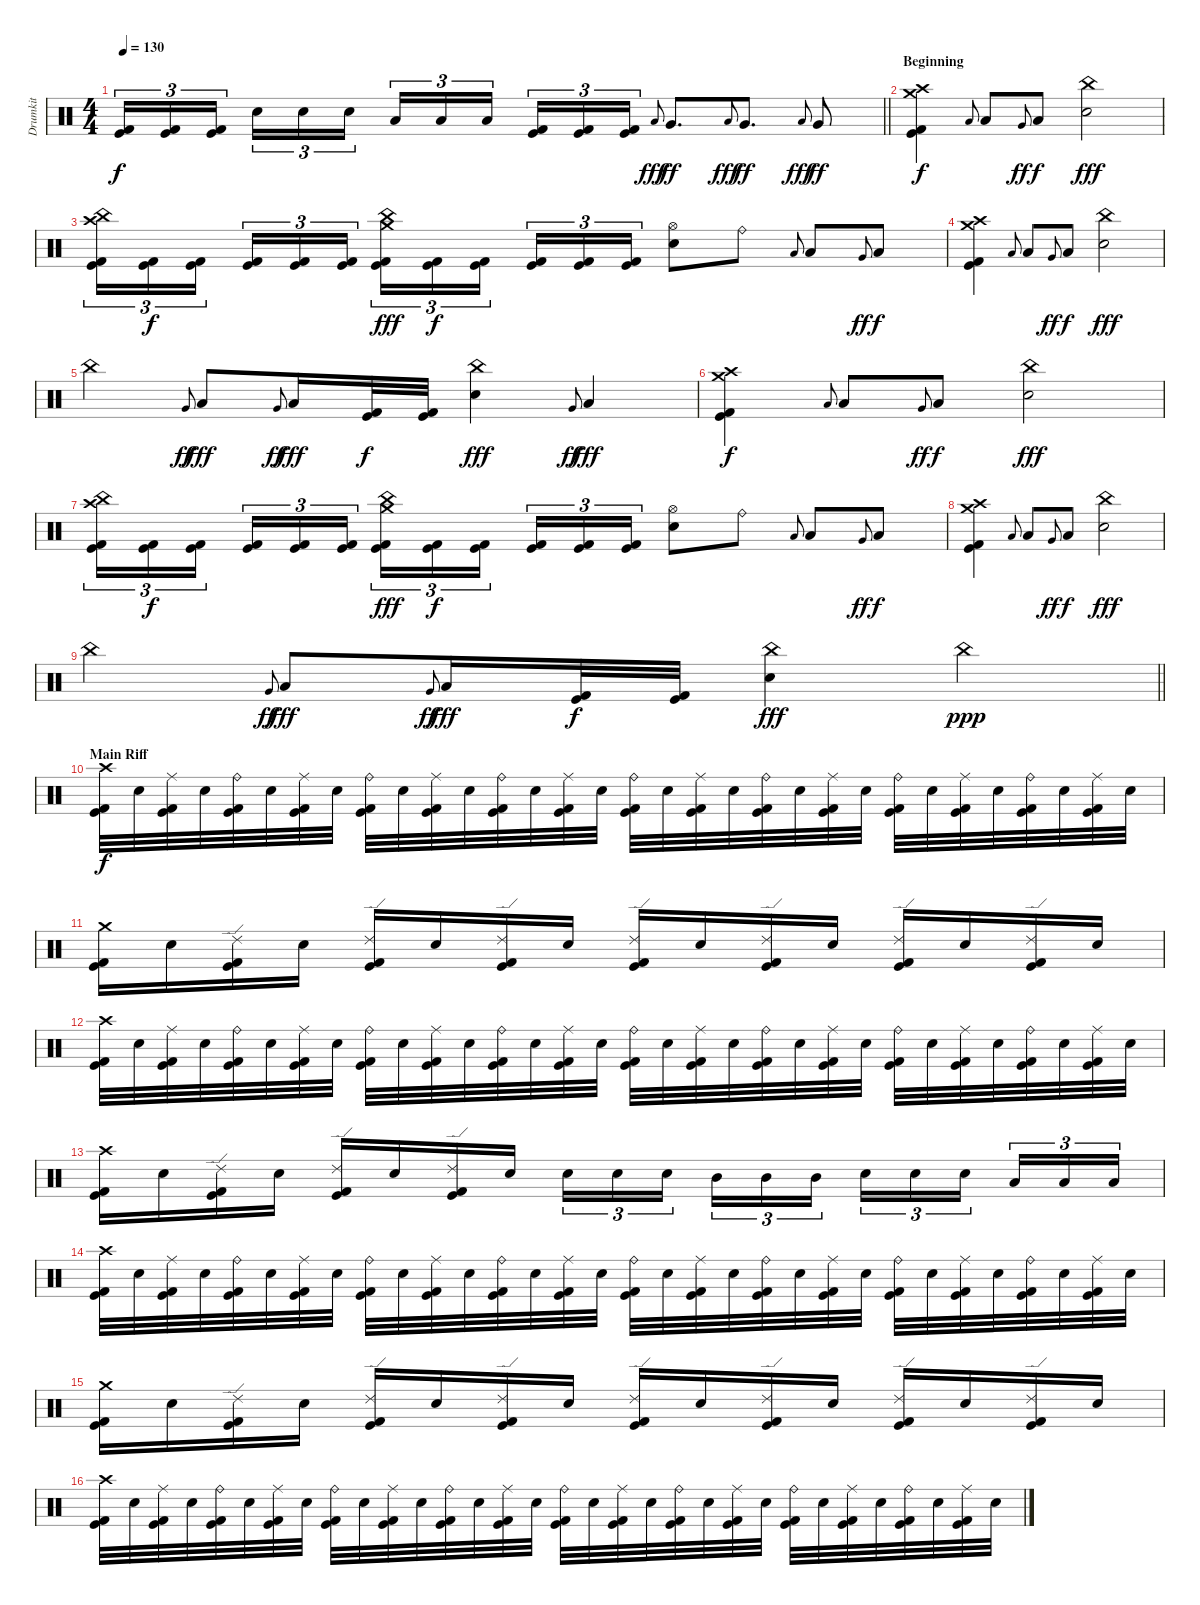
\track ("Drumkit" "Drumkit") {instrument percussion}
\staff {score}
\articulation defaults
\ts (4 4)
\tempo 130
\clef neutral
\barLineRight lightlight
\ks c
("Kick (hit)" "Kick (hit) 2").16{tu (3 2) dy f} ("Kick (hit)" "Kick (hit) 2").16{tu (3 2)} ("Kick (hit)" "Kick (hit) 2").16{tu (3 2) beam splitsecondary} "Electric Snare (hit)".16{tu (3 2)} "Electric Snare (hit)".16{tu (3 2)} "Electric Snare (hit)".16{tu (3 2)} "Low Tom (hit)".16{tu (3 2)} "Low Tom (hit)".16{tu (3 2)} "Low Tom (hit)".16{tu (3 2) beam splitsecondary} ("Kick (hit)" "Kick (hit) 2").16{tu (3 2)} ("Kick (hit)" "Kick (hit) 2").16{tu (3 2)} ("Kick (hit)" "Kick (hit) 2").16{tu (3 2)} "Low Floor Tom (hit)".8{gr onbeat dy fff} "Very Low Tom (hit)".8{d dy ff} "Low Floor Tom (hit)".8{gr onbeat dy fff} "Very Low Tom (hit)".8{d dy ff} "Low Floor Tom (hit)".8{gr onbeat dy fff} "Very Low Tom (hit)".8{dy ff} |
\section ("" "Beginning")
("Crash high (hit)" "Crash medium (hit)" "Kick (hit)" "Kick (hit) 2").4{dy f} "Low Tom (hit)".8{gr onbeat} "Low Floor Tom (hit)".8 "Very Low Tom (hit)".8{gr onbeat dy ff} "Low Floor Tom (hit)".8{dy f} ("China (hit)" "Electric Snare (hit)").2{dy fff} |
("Crash high (hit)" "China (hit)" "Kick (hit)" "Kick (hit) 2").16{tu (3 2)} ("Kick (hit)" "Kick (hit) 2").16{tu (3 2) dy f} ("Kick (hit)" "Kick (hit) 2").16{tu (3 2) beam splitsecondary} ("Kick (hit)" "Kick (hit) 2").16{tu (3 2)} ("Kick (hit)" "Kick (hit) 2").16{tu (3 2)} ("Kick (hit)" "Kick (hit) 2").16{tu (3 2)} ("Crash medium (hit)" "China (hit)" "Kick (hit)" "Kick (hit) 2").16{tu (3 2) dy fff} ("Kick (hit)" "Kick (hit) 2").16{tu (3 2) dy f} ("Kick (hit)" "Kick (hit) 2").16{tu (3 2) beam splitsecondary} ("Kick (hit)" "Kick (hit) 2").16{tu (3 2)} ("Kick (hit)" "Kick (hit) 2").16{tu (3 2)} ("Kick (hit)" "Kick (hit) 2").16{tu (3 2)} ("Hi-Hat (open)" "Electric Snare (hit)").8 "Ride (bell)".8 "Low Tom (hit)".8{gr onbeat} "Low Floor Tom (hit)".8 "Very Low Tom (hit)".8{gr onbeat dy ff} "Low Floor Tom (hit)".8{dy f} |
("Crash high (hit)" "Crash medium (hit)" "Kick (hit)" "Kick (hit) 2").4 "Low Tom (hit)".8{gr onbeat} "Low Floor Tom (hit)".8 "Very Low Tom (hit)".8{gr onbeat dy ff} "Low Floor Tom (hit)".8{dy f} ("China (hit)" "Electric Snare (hit)").2{dy fff} |
"China (hit)".4 "Very Low Tom (hit)".8{gr onbeat dy ff} "Low Floor Tom (hit)".8{dy fff} "Very Low Tom (hit)".8{gr onbeat dy ff} "Low Floor Tom (hit)".16{dy fff} ("Kick (hit)" "Kick (hit) 2").32{dy f} ("Kick (hit)" "Kick (hit) 2").32 ("China (hit)" "Electric Snare (hit)").4{dy fff} "Very Low Tom (hit)".8{gr onbeat dy ff} "Low Floor Tom (hit)".4{dy fff} |
("Crash high (hit)" "Crash medium (hit)" "Kick (hit)" "Kick (hit) 2").4{dy f} "Low Tom (hit)".8{gr onbeat} "Low Floor Tom (hit)".8 "Very Low Tom (hit)".8{gr onbeat dy ff} "Low Floor Tom (hit)".8{dy f} ("China (hit)" "Electric Snare (hit)").2{dy fff} |
("Crash high (hit)" "China (hit)" "Kick (hit)" "Kick (hit) 2").16{tu (3 2)} ("Kick (hit)" "Kick (hit) 2").16{tu (3 2) dy f} ("Kick (hit)" "Kick (hit) 2").16{tu (3 2) beam splitsecondary} ("Kick (hit)" "Kick (hit) 2").16{tu (3 2)} ("Kick (hit)" "Kick (hit) 2").16{tu (3 2)} ("Kick (hit)" "Kick (hit) 2").16{tu (3 2)} ("Crash medium (hit)" "China (hit)" "Kick (hit)" "Kick (hit) 2").16{tu (3 2) dy fff} ("Kick (hit)" "Kick (hit) 2").16{tu (3 2) dy f} ("Kick (hit)" "Kick (hit) 2").16{tu (3 2) beam splitsecondary} ("Kick (hit)" "Kick (hit) 2").16{tu (3 2)} ("Kick (hit)" "Kick (hit) 2").16{tu (3 2)} ("Kick (hit)" "Kick (hit) 2").16{tu (3 2)} ("Hi-Hat (open)" "Electric Snare (hit)").8 "Ride (bell)".8 "Low Tom (hit)".8{gr onbeat} "Low Floor Tom (hit)".8 "Very Low Tom (hit)".8{gr onbeat dy ff} "Low Floor Tom (hit)".8{dy f} |
("Crash high (hit)" "Crash medium (hit)" "Kick (hit)" "Kick (hit) 2").4 "Low Tom (hit)".8{gr onbeat} "Low Floor Tom (hit)".8 "Very Low Tom (hit)".8{gr onbeat dy ff} "Low Floor Tom (hit)".8{dy f} ("China (hit)" "Electric Snare (hit)").2{dy fff} |
\barLineRight lightlight "China (hit)".4 "Very Low Tom (hit)".8{gr onbeat dy ff} "Low Floor Tom (hit)".8{dy fff} "Very Low Tom (hit)".8{gr onbeat dy ff} "Low Floor Tom (hit)".16{dy fff}
("Kick (hit)" "Kick (hit) 2").32{dy f} ("Kick (hit)" "Kick (hit) 2").32 ("China (hit)" "Electric Snare (hit)").4{dy fff} "China (hit)".4{dy ppp} |
\section ("" "Main Riff")
("Crash high (hit)" "Kick (hit)" "Kick (hit) 2").32{dy f} "Electric Snare (hit)".32 ("Ride (middle)" "Kick (hit)" "Kick (hit) 2").32 "Electric Snare (hit)".32 ("Ride (bell)" "Kick (hit)" "Kick (hit) 2").32 "Electric Snare (hit)".32 ("Ride (middle)" "Kick (hit)" "Kick (hit) 2").32 "Electric Snare (hit)".32 ("Ride (bell)" "Kick (hit)" "Kick (hit) 2").32 "Electric Snare (hit)".32 ("Ride (middle)" "Kick (hit)" "Kick (hit) 2").32 "Electric Snare (hit)".32 ("Ride (bell)" "Kick (hit)" "Kick (hit) 2").32 "Electric Snare (hit)".32 ("Ride (middle)" "Kick (hit)" "Kick (hit) 2").32 "Electric Snare (hit)".32 ("Ride (bell)" "Kick (hit)" "Kick (hit) 2").32 "Electric Snare (hit)".32 ("Ride (middle)" "Kick (hit)" "Kick (hit) 2").32 "Electric Snare (hit)".32 ("Ride (bell)" "Kick (hit)" "Kick (hit) 2").32 "Electric Snare (hit)".32 ("Ride (middle)" "Kick (hit)" "Kick (hit) 2").32 "Electric Snare (hit)".32 ("Ride (bell)" "Kick (hit)" "Kick (hit) 2").32 "Electric Snare (hit)".32 ("Ride (middle)" "Kick (hit)" "Kick (hit) 2").32 "Electric Snare (hit)".32 ("Ride (bell)" "Kick (hit)" "Kick (hit) 2").32 "Electric Snare (hit)".32 ("Ride (middle)" "Kick (hit)" "Kick (hit) 2").32 "Electric Snare (hit)".32 |
("Crash medium (hit)" "Kick (hit)" "Kick (hit) 2").16 "Electric Snare (hit)".16 ("Ride (edge) 2" "Kick (hit)" "Kick (hit) 2").16 "Electric Snare (hit)".16 ("Ride (edge) 2" "Kick (hit)" "Kick (hit) 2").16 "Electric Snare (hit)".16 ("Ride (edge) 2" "Kick (hit)" "Kick (hit) 2").16 "Electric Snare (hit)".16 ("Ride (edge) 2" "Kick (hit)" "Kick (hit) 2").16 "Electric Snare (hit)".16 ("Ride (edge) 2" "Kick (hit)" "Kick (hit) 2").16 "Electric Snare (hit)".16 ("Ride (edge) 2" "Kick (hit)" "Kick (hit) 2").16 "Electric Snare (hit)".16 ("Ride (edge) 2" "Kick (hit)" "Kick (hit) 2").16 "Electric Snare (hit)".16 |
("Crash high (hit)" "Kick (hit)" "Kick (hit) 2").32 "Electric Snare (hit)".32 ("Ride (middle)" "Kick (hit)" "Kick (hit) 2").32 "Electric Snare (hit)".32 ("Ride (bell)" "Kick (hit)" "Kick (hit) 2").32 "Electric Snare (hit)".32 ("Ride (middle)" "Kick (hit)" "Kick (hit) 2").32 "Electric Snare (hit)".32 ("Ride (bell)" "Kick (hit)" "Kick (hit) 2").32 "Electric Snare (hit)".32 ("Ride (middle)" "Kick (hit)" "Kick (hit) 2").32 "Electric Snare (hit)".32 ("Ride (bell)" "Kick (hit)" "Kick (hit) 2").32 "Electric Snare (hit)".32 ("Ride (middle)" "Kick (hit)" "Kick (hit) 2").32 "Electric Snare (hit)".32 ("Ride (bell)" "Kick (hit)" "Kick (hit) 2").32 "Electric Snare (hit)".32 ("Ride (middle)" "Kick (hit)" "Kick (hit) 2").32 "Electric Snare (hit)".32 ("Ride (bell)" "Kick (hit)" "Kick (hit) 2").32 "Electric Snare (hit)".32 ("Ride (middle)" "Kick (hit)" "Kick (hit) 2").32 "Electric Snare (hit)".32 ("Ride (bell)" "Kick (hit)" "Kick (hit) 2").32 "Electric Snare (hit)".32 ("Ride (middle)" "Kick (hit)" "Kick (hit) 2").32 "Electric Snare (hit)".32 ("Ride (bell)" "Kick (hit)" "Kick (hit) 2").32 "Electric Snare (hit)".32 ("Ride (middle)" "Kick (hit)" "Kick (hit) 2").32 "Electric Snare (hit)".32 |
("Crash high (hit)" "Kick (hit)" "Kick (hit) 2").16 "Electric Snare (hit)".16 ("Ride (edge) 2" "Kick (hit)" "Kick (hit) 2").16 "Electric Snare (hit)".16 ("Ride (edge) 2" "Kick (hit)" "Kick (hit) 2").16 "Electric Snare (hit)".16 ("Ride (edge) 2" "Kick (hit)" "Kick (hit) 2").16 "Electric Snare (hit)".16 "Electric Snare (hit)".16{tu (3 2)} "Electric Snare (hit)".16{tu (3 2)} "Electric Snare (hit)".16{tu (3 2) beam splitsecondary} "Mid Tom (hit)".16{tu (3 2)} "Mid Tom (hit)".16{tu (3 2)} "Mid Tom (hit)".16{tu (3 2)} "Electric Snare (hit)".16{tu (3 2)} "Electric Snare (hit)".16{tu (3 2)} "Electric Snare (hit)".16{tu (3 2) beam splitsecondary} "Low Tom (hit)".16{tu (3 2)} "Low Tom (hit)".16{tu (3 2)} "Low Tom (hit)".16{tu (3 2)} |
("Crash high (hit)" "Kick (hit)" "Kick (hit) 2").32 "Electric Snare (hit)".32 ("Ride (middle)" "Kick (hit)" "Kick (hit) 2").32 "Electric Snare (hit)".32 ("Ride (bell)" "Kick (hit)" "Kick (hit) 2").32 "Electric Snare (hit)".32 ("Ride (middle)" "Kick (hit)" "Kick (hit) 2").32 "Electric Snare (hit)".32 ("Ride (bell)" "Kick (hit)" "Kick (hit) 2").32 "Electric Snare (hit)".32 ("Ride (middle)" "Kick (hit)" "Kick (hit) 2").32 "Electric Snare (hit)".32 ("Ride (bell)" "Kick (hit)" "Kick (hit) 2").32 "Electric Snare (hit)".32 ("Ride (middle)" "Kick (hit)" "Kick (hit) 2").32 "Electric Snare (hit)".32 ("Ride (bell)" "Kick (hit)" "Kick (hit) 2").32 "Electric Snare (hit)".32 ("Ride (middle)" "Kick (hit)" "Kick (hit) 2").32 "Electric Snare (hit)".32 ("Ride (bell)" "Kick (hit)" "Kick (hit) 2").32 "Electric Snare (hit)".32 ("Ride (middle)" "Kick (hit)" "Kick (hit) 2").32 "Electric Snare (hit)".32 ("Ride (bell)" "Kick (hit)" "Kick (hit) 2").32 "Electric Snare (hit)".32 ("Ride (middle)" "Kick (hit)" "Kick (hit) 2").32 "Electric Snare (hit)".32 ("Ride (bell)" "Kick (hit)" "Kick (hit) 2").32 "Electric Snare (hit)".32 ("Ride (middle)" "Kick (hit)" "Kick (hit) 2").32 "Electric Snare (hit)".32 |
("Crash medium (hit)" "Kick (hit)" "Kick (hit) 2").16 "Electric Snare (hit)".16 ("Ride (edge) 2" "Kick (hit)" "Kick (hit) 2").16 "Electric Snare (hit)".16 ("Ride (edge) 2" "Kick (hit)" "Kick (hit) 2").16 "Electric Snare (hit)".16 ("Ride (edge) 2" "Kick (hit)" "Kick (hit) 2").16 "Electric Snare (hit)".16 ("Ride (edge) 2" "Kick (hit)" "Kick (hit) 2").16 "Electric Snare (hit)".16 ("Ride (edge) 2" "Kick (hit)" "Kick (hit) 2").16 "Electric Snare (hit)".16 ("Ride (edge) 2" "Kick (hit)" "Kick (hit) 2").16 "Electric Snare (hit)".16 ("Ride (edge) 2" "Kick (hit)" "Kick (hit) 2").16 "Electric Snare (hit)".16 |
("Crash high (hit)" "Kick (hit)" "Kick (hit) 2").32 "Electric Snare (hit)".32 ("Ride (middle)" "Kick (hit)" "Kick (hit) 2").32 "Electric Snare (hit)".32 ("Ride (bell)" "Kick (hit)" "Kick (hit) 2").32 "Electric Snare (hit)".32 ("Ride (middle)" "Kick (hit)" "Kick (hit) 2").32 "Electric Snare (hit)".32 ("Ride (bell)" "Kick (hit)" "Kick (hit) 2").32 "Electric Snare (hit)".32 ("Ride (middle)" "Kick (hit)" "Kick (hit) 2").32 "Electric Snare (hit)".32 ("Ride (bell)" "Kick (hit)" "Kick (hit) 2").32 "Electric Snare (hit)".32 ("Ride (middle)" "Kick (hit)" "Kick (hit) 2").32 "Electric Snare (hit)".32 ("Ride (bell)" "Kick (hit)" "Kick (hit) 2").32 "Electric Snare (hit)".32 ("Ride (middle)" "Kick (hit)" "Kick (hit) 2").32 "Electric Snare (hit)".32 ("Ride (bell)" "Kick (hit)" "Kick (hit) 2").32 "Electric Snare (hit)".32 ("Ride (middle)" "Kick (hit)" "Kick (hit) 2").32 "Electric Snare (hit)".32 ("Ride (bell)" "Kick (hit)" "Kick (hit) 2").32 "Electric Snare (hit)".32 ("Ride (middle)" "Kick (hit)" "Kick (hit) 2").32 "Electric Snare (hit)".32 ("Ride (bell)" "Kick (hit)" "Kick (hit) 2").32 "Electric Snare (hit)".32 ("Ride (middle)" "Kick (hit)" "Kick (hit) 2").32 "Electric Snare (hit)".32
